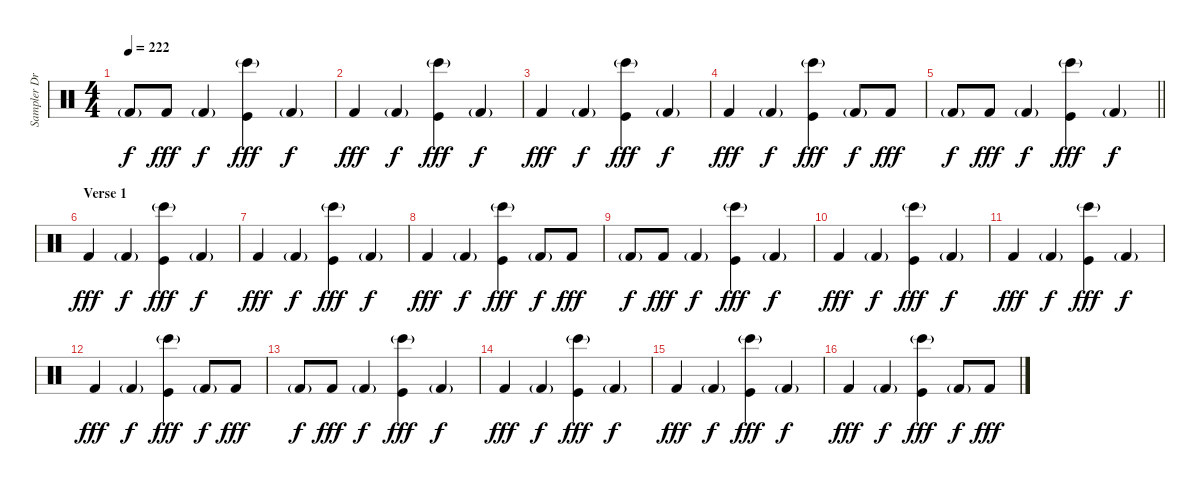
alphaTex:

\track ("Sampler Drums 2" "Sampler Dr") {instrument percussion}
\staff {score}
\articulation defaults
\ts (4 4)
\tempo 222
\clef neutral
\ks c "Kick (hit) 2"{g}.8{dy f} "Kick (hit) 2".8{dy fff} "Kick (hit) 2"{g}.4{dy f}
("Kick (hit)" "Bongo High (hit)"{g}).4{dy fff} "Kick (hit) 2"{g}.4{dy f} |
"Kick (hit) 2".4{dy fff volume 10} "Kick (hit) 2"{g}.4{dy f} ("Kick (hit)" "Bongo High (hit)"{g}).4{dy fff} "Kick (hit) 2"{g}.4{dy f} |
"Kick (hit) 2".4{dy fff} "Kick (hit) 2"{g}.4{dy f} ("Kick (hit)" "Bongo High (hit)"{g}).4{dy fff} "Kick (hit) 2"{g}.4{dy f} |
"Kick (hit) 2".4{dy fff} "Kick (hit) 2"{g}.4{dy f} ("Kick (hit)" "Bongo High (hit)"{g}).4{dy fff} "Kick (hit) 2"{g}.8{dy f} "Kick (hit) 2".8{dy fff} |
\barLineRight lightlight "Kick (hit) 2"{g}.8{dy f} "Kick (hit) 2".8{dy fff} "Kick (hit) 2"{g}.4{dy f}
("Kick (hit)" "Bongo High (hit)"{g}).4{dy fff} "Kick (hit) 2"{g}.4{dy f} |
\section ("" "Verse 1")
"Kick (hit) 2".4{dy fff volume 10} "Kick (hit) 2"{g}.4{dy f} ("Kick (hit)" "Bongo High (hit)"{g}).4{dy fff} "Kick (hit) 2"{g}.4{dy f} |
"Kick (hit) 2".4{dy fff} "Kick (hit) 2"{g}.4{dy f} ("Kick (hit)" "Bongo High (hit)"{g}).4{dy fff} "Kick (hit) 2"{g}.4{dy f} |
"Kick (hit) 2".4{dy fff} "Kick (hit) 2"{g}.4{dy f} ("Kick (hit)" "Bongo High (hit)"{g}).4{dy fff} "Kick (hit) 2"{g}.8{dy f} "Kick (hit) 2".8{dy fff} |
"Kick (hit) 2"{g}.8{dy f} "Kick (hit) 2".8{dy fff} "Kick (hit) 2"{g}.4{dy f} ("Kick (hit)" "Bongo High (hit)"{g}).4{dy fff} "Kick (hit) 2"{g}.4{dy f} |
"Kick (hit) 2".4{dy fff volume 10} "Kick (hit) 2"{g}.4{dy f} ("Kick (hit)" "Bongo High (hit)"{g}).4{dy fff} "Kick (hit) 2"{g}.4{dy f} |
"Kick (hit) 2".4{dy fff} "Kick (hit) 2"{g}.4{dy f} ("Kick (hit)" "Bongo High (hit)"{g}).4{dy fff} "Kick (hit) 2"{g}.4{dy f} |
"Kick (hit) 2".4{dy fff} "Kick (hit) 2"{g}.4{dy f} ("Kick (hit)" "Bongo High (hit)"{g}).4{dy fff} "Kick (hit) 2"{g}.8{dy f} "Kick (hit) 2".8{dy fff} |
"Kick (hit) 2"{g}.8{dy f} "Kick (hit) 2".8{dy fff} "Kick (hit) 2"{g}.4{dy f} ("Kick (hit)" "Bongo High (hit)"{g}).4{dy fff} "Kick (hit) 2"{g}.4{dy f} |
"Kick (hit) 2".4{dy fff volume 10} "Kick (hit) 2"{g}.4{dy f} ("Kick (hit)" "Bongo High (hit)"{g}).4{dy fff} "Kick (hit) 2"{g}.4{dy f} |
"Kick (hit) 2".4{dy fff} "Kick (hit) 2"{g}.4{dy f} ("Kick (hit)" "Bongo High (hit)"{g}).4{dy fff} "Kick (hit) 2"{g}.4{dy f} |
"Kick (hit) 2".4{dy fff} "Kick (hit) 2"{g}.4{dy f} ("Kick (hit)" "Bongo High (hit)"{g}).4{dy fff} "Kick (hit) 2"{g}.8{dy f} "Kick (hit) 2".8{dy fff}
